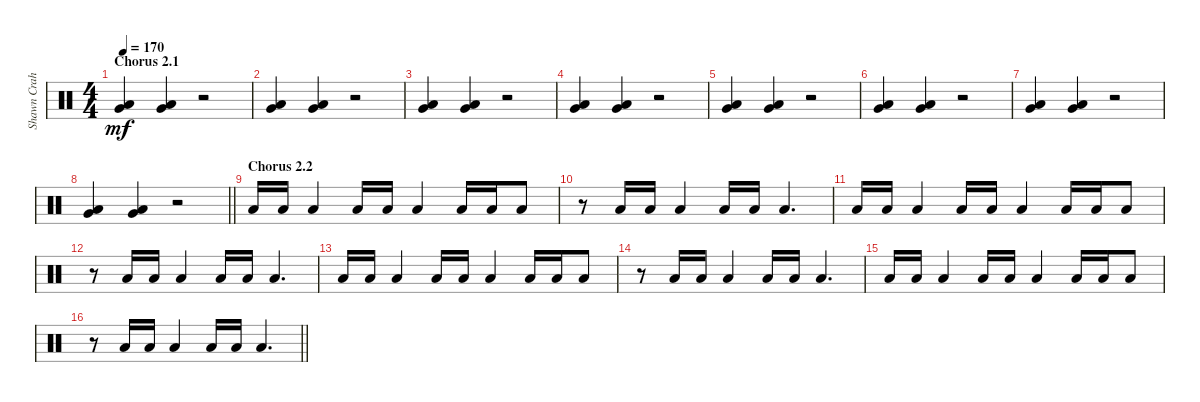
\track ("Shawn Crahan" "Shawn Crah") {instrument percussion}
\staff {score}
\articulation defaults
\ts (4 4)
\section ("" "Chorus 2.1")
\tempo 170
\clef neutral
\ks c
("Very Low Tom (hit)" "Low Floor Tom (hit)").4{dy mf} ("Very Low Tom (hit)" "Low Floor Tom (hit)").4 r.2 |
("Very Low Tom (hit)" "Low Floor Tom (hit)").4 ("Very Low Tom (hit)" "Low Floor Tom (hit)").4 r.2 |
("Very Low Tom (hit)" "Low Floor Tom (hit)").4 ("Very Low Tom (hit)" "Low Floor Tom (hit)").4 r.2 |
("Very Low Tom (hit)" "Low Floor Tom (hit)").4 ("Very Low Tom (hit)" "Low Floor Tom (hit)").4 r.2 |
("Very Low Tom (hit)" "Low Floor Tom (hit)").4 ("Very Low Tom (hit)" "Low Floor Tom (hit)").4 r.2 |
("Very Low Tom (hit)" "Low Floor Tom (hit)").4 ("Very Low Tom (hit)" "Low Floor Tom (hit)").4 r.2 |
("Very Low Tom (hit)" "Low Floor Tom (hit)").4 ("Very Low Tom (hit)" "Low Floor Tom (hit)").4 r.2 |
\barLineRight lightlight
("Very Low Tom (hit)" "Low Floor Tom (hit)").4 ("Very Low Tom (hit)" "Low Floor Tom (hit)").4 r.2 |
\section ("" "Chorus 2.2")
"Low Floor Tom (hit)".16 "Low Floor Tom (hit)".16 "Low Floor Tom (hit)".4 "Low Floor Tom (hit)".16 "Low Floor Tom (hit)".16 "Low Floor Tom (hit)".4 "Low Floor Tom (hit)".16 "Low Floor Tom (hit)".16 "Low Floor Tom (hit)".8 |
r.8 "Low Floor Tom (hit)".16 "Low Floor Tom (hit)".16 "Low Floor Tom (hit)".4 "Low Floor Tom (hit)".16 "Low Floor Tom (hit)".16 "Low Floor Tom (hit)".4{d} |
"Low Floor Tom (hit)".16 "Low Floor Tom (hit)".16 "Low Floor Tom (hit)".4 "Low Floor Tom (hit)".16 "Low Floor Tom (hit)".16 "Low Floor Tom (hit)".4 "Low Floor Tom (hit)".16 "Low Floor Tom (hit)".16 "Low Floor Tom (hit)".8 |
r.8 "Low Floor Tom (hit)".16 "Low Floor Tom (hit)".16 "Low Floor Tom (hit)".4 "Low Floor Tom (hit)".16 "Low Floor Tom (hit)".16 "Low Floor Tom (hit)".4{d} |
"Low Floor Tom (hit)".16 "Low Floor Tom (hit)".16 "Low Floor Tom (hit)".4 "Low Floor Tom (hit)".16 "Low Floor Tom (hit)".16 "Low Floor Tom (hit)".4 "Low Floor Tom (hit)".16 "Low Floor Tom (hit)".16 "Low Floor Tom (hit)".8 |
r.8 "Low Floor Tom (hit)".16 "Low Floor Tom (hit)".16 "Low Floor Tom (hit)".4 "Low Floor Tom (hit)".16 "Low Floor Tom (hit)".16 "Low Floor Tom (hit)".4{d} |
"Low Floor Tom (hit)".16 "Low Floor Tom (hit)".16 "Low Floor Tom (hit)".4 "Low Floor Tom (hit)".16 "Low Floor Tom (hit)".16 "Low Floor Tom (hit)".4 "Low Floor Tom (hit)".16 "Low Floor Tom (hit)".16 "Low Floor Tom (hit)".8 |
\barLineRight lightlight
r.8 "Low Floor Tom (hit)".16 "Low Floor Tom (hit)".16 "Low Floor Tom (hit)".4 "Low Floor Tom (hit)".16 "Low Floor Tom (hit)".16 "Low Floor Tom (hit)".4{d}
